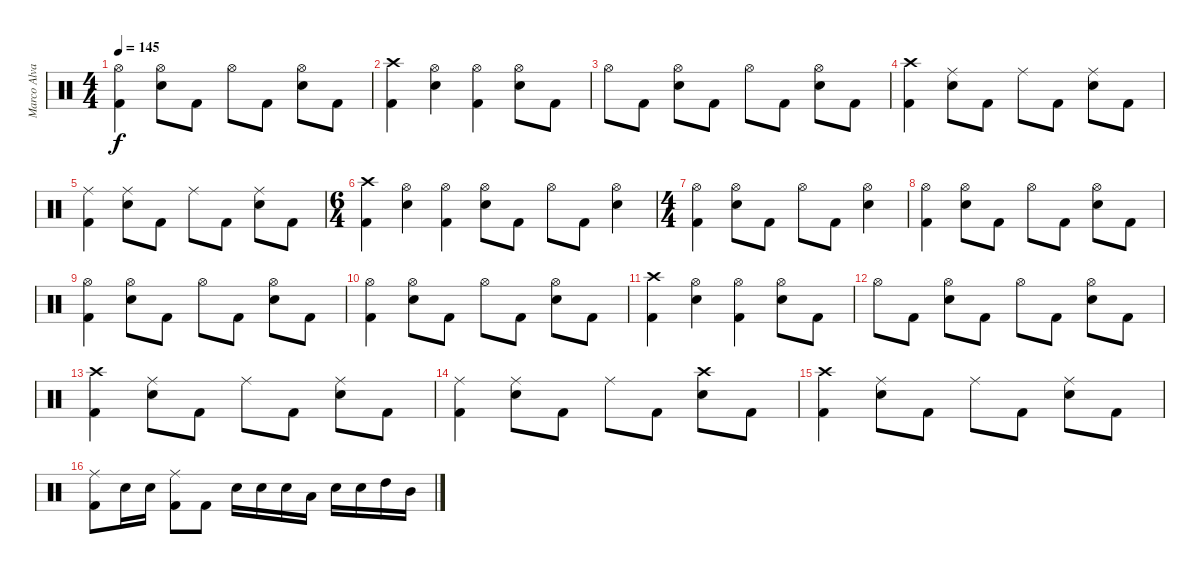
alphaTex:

\track ("Marco Alvarez" "Marco Alva") {instrument percussion}
\staff {score}
\articulation defaults
\ts (4 4)
\tempo 145
\clef neutral
\ks c
("Kick (hit) 2" "Hi-Hat (open)").4{dy f} ("Electric Snare (hit)" "Hi-Hat (open)").8 "Kick (hit) 2".8 "Hi-Hat (open)".8 "Kick (hit) 2".8 ("Electric Snare (hit)" "Hi-Hat (open)").8 "Kick (hit) 2".8 |
("Kick (hit) 2" "Crash high (hit)").4 ("Electric Snare (hit)" "Hi-Hat (open)").4 ("Kick (hit) 2" "Hi-Hat (open)").4 ("Electric Snare (hit)" "Hi-Hat (open)").8 "Kick (hit) 2".8 |
"Hi-Hat (open)".8 "Kick (hit) 2".8 ("Electric Snare (hit)" "Hi-Hat (open)").8 "Kick (hit) 2".8 "Hi-Hat (open)".8 "Kick (hit) 2".8 ("Electric Snare (hit)" "Hi-Hat (open)").8 "Kick (hit) 2".8 |
("Kick (hit) 2" "Crash high (hit)").4 ("Electric Snare (hit)" "Ride (middle)").8 "Kick (hit) 2".8 "Ride (middle)".8 "Kick (hit) 2".8 ("Electric Snare (hit)" "Ride (middle)").8 "Kick (hit) 2".8 |
("Kick (hit) 2" "Ride (middle)").4 ("Electric Snare (hit)" "Ride (middle)").8 "Kick (hit) 2".8 "Ride (middle)".8 "Kick (hit) 2".8 ("Electric Snare (hit)" "Ride (middle)").8 "Kick (hit) 2".8 |
\ts (6 4)
("Kick (hit) 2" "Crash high (hit)").4 ("Electric Snare (hit)" "Hi-Hat (open)").4 ("Kick (hit) 2" "Hi-Hat (open)").4 ("Electric Snare (hit)" "Hi-Hat (open)").8 "Kick (hit) 2".8 "Hi-Hat (open)".8 "Kick (hit) 2".8 ("Electric Snare (hit)" "Hi-Hat (open)").4 |
\ts (4 4)
("Kick (hit) 2" "Hi-Hat (open)").4 ("Electric Snare (hit)" "Hi-Hat (open)").8 "Kick (hit) 2".8 "Hi-Hat (open)".8 "Kick (hit) 2".8 ("Electric Snare (hit)" "Hi-Hat (open)").4 |
("Kick (hit) 2" "Hi-Hat (open)").4 ("Electric Snare (hit)" "Hi-Hat (open)").8 "Kick (hit) 2".8 "Hi-Hat (open)".8 "Kick (hit) 2".8 ("Electric Snare (hit)" "Hi-Hat (open)").8 "Kick (hit) 2".8 |
("Kick (hit) 2" "Hi-Hat (open)").4 ("Electric Snare (hit)" "Hi-Hat (open)").8 "Kick (hit) 2".8 "Hi-Hat (open)".8 "Kick (hit) 2".8 ("Electric Snare (hit)" "Hi-Hat (open)").8 "Kick (hit) 2".8 |
("Kick (hit) 2" "Hi-Hat (open)").4 ("Electric Snare (hit)" "Hi-Hat (open)").8 "Kick (hit) 2".8 "Hi-Hat (open)".8 "Kick (hit) 2".8 ("Electric Snare (hit)" "Hi-Hat (open)").8 "Kick (hit) 2".8 |
("Kick (hit) 2" "Crash high (hit)").4 ("Electric Snare (hit)" "Hi-Hat (open)").4 ("Kick (hit) 2" "Hi-Hat (open)").4 ("Electric Snare (hit)" "Hi-Hat (open)").8 "Kick (hit) 2".8 |
"Hi-Hat (open)".8 "Kick (hit) 2".8 ("Electric Snare (hit)" "Hi-Hat (open)").8 "Kick (hit) 2".8 "Hi-Hat (open)".8 "Kick (hit) 2".8 ("Electric Snare (hit)" "Hi-Hat (open)").8 "Kick (hit) 2".8 |
("Kick (hit) 2" "Crash high (hit)").4 ("Electric Snare (hit)" "Ride (middle)").8 "Kick (hit) 2".8 "Ride (middle)".8 "Kick (hit) 2".8 ("Electric Snare (hit)" "Ride (middle)").8 "Kick (hit) 2".8 |
("Kick (hit) 2" "Ride (middle)").4 ("Electric Snare (hit)" "Ride (middle)").8 "Kick (hit) 2".8 "Ride (middle)".8 "Kick (hit) 2".8 ("Electric Snare (hit)" "Crash high (hit)").8 "Kick (hit) 2".8 |
("Kick (hit) 2" "Crash high (hit)").4 ("Electric Snare (hit)" "Ride (middle)").8 "Kick (hit) 2".8 "Ride (middle)".8 "Kick (hit) 2".8 ("Electric Snare (hit)" "Ride (middle)").8 "Kick (hit) 2".8 |
("Kick (hit) 2" "Ride (middle)").8 "Electric Snare (hit)".16 "Electric Snare (hit)".16 ("Kick (hit) 2" "Ride (middle)").8 "Kick (hit) 2".8 "Electric Snare (hit)".16 "Electric Snare (hit)".16 "Electric Snare (hit)".16 "Low Tom (hit)".16 "Electric Snare (hit)".16 "Electric Snare (hit)".16 "High Tom (hit)".16 "Mid Tom (hit)".16
